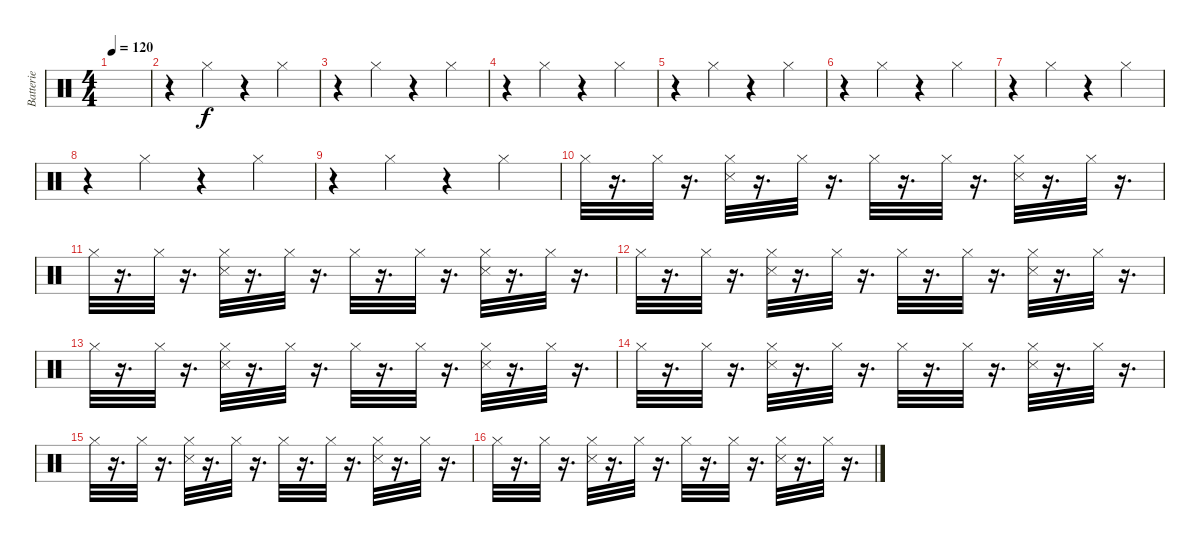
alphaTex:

\track ("Batterie" "Batterie") {instrument percussion}
\staff {score}
\articulation defaults
\ts (4 4)
\tempo 120
\clef neutral
\ks c
|
r.4 "Hi-Hat (closed)".4 r.4 "Hi-Hat (closed)".4 |
r.4 "Hi-Hat (closed)".4 r.4 "Hi-Hat (closed)".4 |
r.4 "Hi-Hat (closed)".4 r.4 "Hi-Hat (closed)".4 |
r.4 "Hi-Hat (closed)".4 r.4 "Hi-Hat (closed)".4 |
r.4 "Hi-Hat (closed)".4 r.4 "Hi-Hat (closed)".4 |
r.4 "Hi-Hat (closed)".4 r.4 "Hi-Hat (closed)".4 |
r.4 "Hi-Hat (closed)".4 r.4 "Hi-Hat (closed)".4 |
r.4 "Hi-Hat (closed)".4 r.4 "Hi-Hat (closed)".4 |
"Hi-Hat (closed)".32 r.16{d} "Hi-Hat (closed)".32 r.16{d} ("Hi-Hat (closed)" "Snare (side stick) 3").32 r.16{d} "Hi-Hat (closed)".32 r.16{d} "Hi-Hat (closed)".32 r.16{d} "Hi-Hat (closed)".32 r.16{d} ("Snare (side stick) 3" "Hi-Hat (closed)").32 r.16{d} "Hi-Hat (closed)".32 r.16{d} |
"Hi-Hat (closed)".32 r.16{d} "Hi-Hat (closed)".32 r.16{d} ("Hi-Hat (closed)" "Snare (side stick) 3").32 r.16{d} "Hi-Hat (closed)".32 r.16{d} "Hi-Hat (closed)".32 r.16{d} "Hi-Hat (closed)".32 r.16{d} ("Snare (side stick) 3" "Hi-Hat (closed)").32 r.16{d} "Hi-Hat (closed)".32 r.16{d} |
"Hi-Hat (closed)".32 r.16{d} "Hi-Hat (closed)".32 r.16{d} ("Hi-Hat (closed)" "Snare (side stick) 3").32 r.16{d} "Hi-Hat (closed)".32 r.16{d} "Hi-Hat (closed)".32 r.16{d} "Hi-Hat (closed)".32 r.16{d} ("Snare (side stick) 3" "Hi-Hat (closed)").32 r.16{d} "Hi-Hat (closed)".32 r.16{d} |
"Hi-Hat (closed)".32 r.16{d} "Hi-Hat (closed)".32 r.16{d} ("Hi-Hat (closed)" "Snare (side stick) 3").32 r.16{d} "Hi-Hat (closed)".32 r.16{d} "Hi-Hat (closed)".32 r.16{d} "Hi-Hat (closed)".32 r.16{d} ("Snare (side stick) 3" "Hi-Hat (closed)").32 r.16{d} "Hi-Hat (closed)".32 r.16{d} |
"Hi-Hat (closed)".32 r.16{d} "Hi-Hat (closed)".32 r.16{d} ("Hi-Hat (closed)" "Snare (side stick) 3").32 r.16{d} "Hi-Hat (closed)".32 r.16{d} "Hi-Hat (closed)".32 r.16{d} "Hi-Hat (closed)".32 r.16{d} ("Snare (side stick) 3" "Hi-Hat (closed)").32 r.16{d} "Hi-Hat (closed)".32 r.16{d} |
"Hi-Hat (closed)".32 r.16{d} "Hi-Hat (closed)".32 r.16{d} ("Hi-Hat (closed)" "Snare (side stick) 3").32 r.16{d} "Hi-Hat (closed)".32 r.16{d} "Hi-Hat (closed)".32 r.16{d} "Hi-Hat (closed)".32 r.16{d} ("Snare (side stick) 3" "Hi-Hat (closed)").32 r.16{d} "Hi-Hat (closed)".32 r.16{d} |
"Hi-Hat (closed)".32 r.16{d} "Hi-Hat (closed)".32 r.16{d} ("Hi-Hat (closed)" "Snare (side stick) 3").32 r.16{d} "Hi-Hat (closed)".32 r.16{d} "Hi-Hat (closed)".32 r.16{d} "Hi-Hat (closed)".32 r.16{d} ("Snare (side stick) 3" "Hi-Hat (closed)").32 r.16{d} "Hi-Hat (closed)".32 r.16{d}
